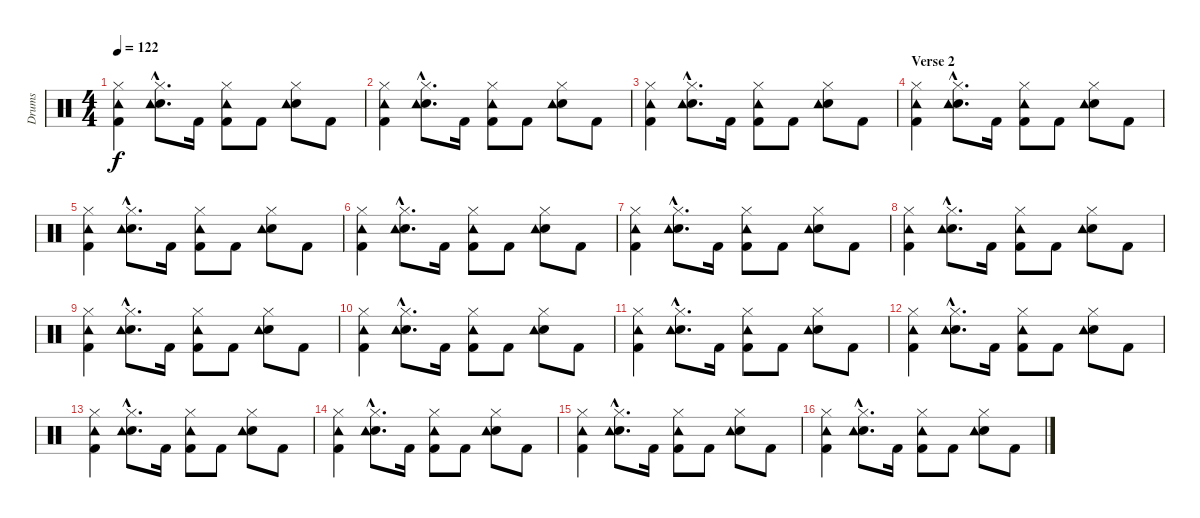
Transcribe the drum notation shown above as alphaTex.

\track ("Drums" "Drums") {instrument percussion}
\staff {score}
\articulation defaults
\ts (4 4)
\tempo 122
\clef neutral
\ks c
("Hi-Hat (closed)" "Kick (hit) 2" "Tambourine (hit)").4{dy f} ("Hi-Hat (closed)"{hac} "Electric Snare (hit)"{hac} "Tambourine (hit)"{hac}).8{d} "Kick (hit) 2".16 ("Hi-Hat (closed)" "Kick (hit) 2" "Tambourine (hit)").8 "Kick (hit) 2".8 ("Hi-Hat (closed)" "Electric Snare (hit)" "Tambourine (hit)").8 "Kick (hit) 2".8 |
("Hi-Hat (closed)" "Kick (hit) 2" "Tambourine (hit)").4 ("Hi-Hat (closed)"{hac} "Electric Snare (hit)"{hac} "Tambourine (hit)"{hac}).8{d} "Kick (hit) 2".16 ("Hi-Hat (closed)" "Kick (hit) 2" "Tambourine (hit)").8 "Kick (hit) 2".8 ("Hi-Hat (closed)" "Electric Snare (hit)" "Tambourine (hit)").8 "Kick (hit) 2".8 |
("Hi-Hat (closed)" "Kick (hit) 2" "Tambourine (hit)").4 ("Hi-Hat (closed)"{hac} "Electric Snare (hit)"{hac} "Tambourine (hit)"{hac}).8{d} "Kick (hit) 2".16 ("Hi-Hat (closed)" "Kick (hit) 2" "Tambourine (hit)").8 "Kick (hit) 2".8 ("Hi-Hat (closed)" "Electric Snare (hit)" "Tambourine (hit)").8 "Kick (hit) 2".8 |
\section ("" "Verse 2")
("Hi-Hat (closed)" "Kick (hit) 2" "Tambourine (hit)").4 ("Hi-Hat (closed)"{hac} "Electric Snare (hit)"{hac} "Tambourine (hit)"{hac}).8{d} "Kick (hit) 2".16 ("Hi-Hat (closed)" "Kick (hit) 2" "Tambourine (hit)").8 "Kick (hit) 2".8 ("Hi-Hat (closed)" "Electric Snare (hit)" "Tambourine (hit)").8 "Kick (hit) 2".8 |
("Hi-Hat (closed)" "Kick (hit) 2" "Tambourine (hit)").4 ("Hi-Hat (closed)"{hac} "Electric Snare (hit)"{hac} "Tambourine (hit)"{hac}).8{d} "Kick (hit) 2".16 ("Hi-Hat (closed)" "Kick (hit) 2" "Tambourine (hit)").8 "Kick (hit) 2".8 ("Hi-Hat (closed)" "Electric Snare (hit)" "Tambourine (hit)").8 "Kick (hit) 2".8 |
("Hi-Hat (closed)" "Kick (hit) 2" "Tambourine (hit)").4 ("Hi-Hat (closed)"{hac} "Electric Snare (hit)"{hac} "Tambourine (hit)"{hac}).8{d} "Kick (hit) 2".16 ("Hi-Hat (closed)" "Kick (hit) 2" "Tambourine (hit)").8 "Kick (hit) 2".8 ("Hi-Hat (closed)" "Electric Snare (hit)" "Tambourine (hit)").8 "Kick (hit) 2".8 |
("Hi-Hat (closed)" "Kick (hit) 2" "Tambourine (hit)").4 ("Hi-Hat (closed)"{hac} "Electric Snare (hit)"{hac} "Tambourine (hit)"{hac}).8{d} "Kick (hit) 2".16 ("Hi-Hat (closed)" "Kick (hit) 2" "Tambourine (hit)").8 "Kick (hit) 2".8 ("Hi-Hat (closed)" "Electric Snare (hit)" "Tambourine (hit)").8 "Kick (hit) 2".8 |
("Hi-Hat (closed)" "Kick (hit) 2" "Tambourine (hit)").4 ("Hi-Hat (closed)"{hac} "Electric Snare (hit)"{hac} "Tambourine (hit)"{hac}).8{d} "Kick (hit) 2".16 ("Hi-Hat (closed)" "Kick (hit) 2" "Tambourine (hit)").8 "Kick (hit) 2".8 ("Hi-Hat (closed)" "Electric Snare (hit)" "Tambourine (hit)").8 "Kick (hit) 2".8 |
("Hi-Hat (closed)" "Kick (hit) 2" "Tambourine (hit)").4 ("Hi-Hat (closed)"{hac} "Electric Snare (hit)"{hac} "Tambourine (hit)"{hac}).8{d} "Kick (hit) 2".16 ("Hi-Hat (closed)" "Kick (hit) 2" "Tambourine (hit)").8 "Kick (hit) 2".8 ("Hi-Hat (closed)" "Electric Snare (hit)" "Tambourine (hit)").8 "Kick (hit) 2".8 |
("Hi-Hat (closed)" "Kick (hit) 2" "Tambourine (hit)").4 ("Hi-Hat (closed)"{hac} "Electric Snare (hit)"{hac} "Tambourine (hit)"{hac}).8{d} "Kick (hit) 2".16 ("Hi-Hat (closed)" "Kick (hit) 2" "Tambourine (hit)").8 "Kick (hit) 2".8 ("Hi-Hat (closed)" "Electric Snare (hit)" "Tambourine (hit)").8 "Kick (hit) 2".8 |
("Hi-Hat (closed)" "Kick (hit) 2" "Tambourine (hit)").4 ("Hi-Hat (closed)"{hac} "Electric Snare (hit)"{hac} "Tambourine (hit)"{hac}).8{d} "Kick (hit) 2".16 ("Hi-Hat (closed)" "Kick (hit) 2" "Tambourine (hit)").8 "Kick (hit) 2".8 ("Hi-Hat (closed)" "Electric Snare (hit)" "Tambourine (hit)").8 "Kick (hit) 2".8 |
("Hi-Hat (closed)" "Kick (hit) 2" "Tambourine (hit)").4 ("Hi-Hat (closed)"{hac} "Electric Snare (hit)"{hac} "Tambourine (hit)"{hac}).8{d} "Kick (hit) 2".16 ("Hi-Hat (closed)" "Kick (hit) 2" "Tambourine (hit)").8 "Kick (hit) 2".8 ("Hi-Hat (closed)" "Electric Snare (hit)" "Tambourine (hit)").8 "Kick (hit) 2".8 |
("Hi-Hat (closed)" "Kick (hit) 2" "Tambourine (hit)").4 ("Hi-Hat (closed)"{hac} "Electric Snare (hit)"{hac} "Tambourine (hit)"{hac}).8{d} "Kick (hit) 2".16 ("Hi-Hat (closed)" "Kick (hit) 2" "Tambourine (hit)").8 "Kick (hit) 2".8 ("Hi-Hat (closed)" "Electric Snare (hit)" "Tambourine (hit)").8 "Kick (hit) 2".8 |
("Hi-Hat (closed)" "Kick (hit) 2" "Tambourine (hit)").4 ("Hi-Hat (closed)"{hac} "Electric Snare (hit)"{hac} "Tambourine (hit)"{hac}).8{d} "Kick (hit) 2".16 ("Hi-Hat (closed)" "Kick (hit) 2" "Tambourine (hit)").8 "Kick (hit) 2".8 ("Hi-Hat (closed)" "Electric Snare (hit)" "Tambourine (hit)").8 "Kick (hit) 2".8 |
("Hi-Hat (closed)" "Kick (hit) 2" "Tambourine (hit)").4 ("Hi-Hat (closed)"{hac} "Electric Snare (hit)"{hac} "Tambourine (hit)"{hac}).8{d} "Kick (hit) 2".16 ("Hi-Hat (closed)" "Kick (hit) 2" "Tambourine (hit)").8 "Kick (hit) 2".8 ("Hi-Hat (closed)" "Electric Snare (hit)" "Tambourine (hit)").8 "Kick (hit) 2".8 |
("Hi-Hat (closed)" "Kick (hit) 2" "Tambourine (hit)").4 ("Hi-Hat (closed)"{hac} "Electric Snare (hit)"{hac} "Tambourine (hit)"{hac}).8{d} "Kick (hit) 2".16 ("Hi-Hat (closed)" "Kick (hit) 2" "Tambourine (hit)").8 "Kick (hit) 2".8 ("Hi-Hat (closed)" "Electric Snare (hit)" "Tambourine (hit)").8 "Kick (hit) 2".8
